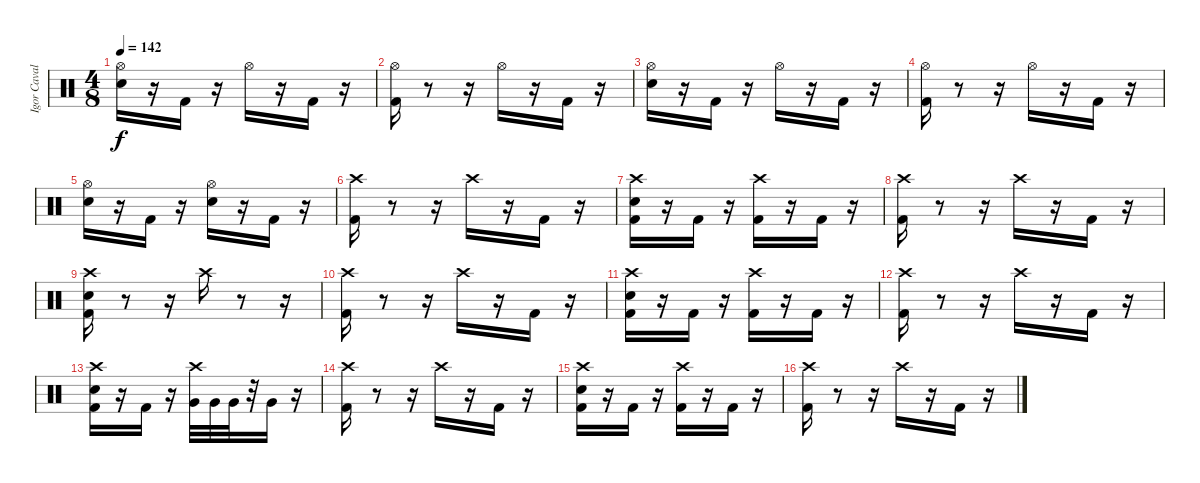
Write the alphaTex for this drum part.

\track ("Igor Cavalera" "Igor Caval") {instrument percussion}
\staff {score}
\articulation defaults
\ts (4 8)
\tempo 142
\clef neutral
\ks c
("Electric Snare (hit)" "Hi-Hat (open)").16{dy f} r.16 "Kick (hit) 2".16 r.16 "Hi-Hat (open)".16 r.16 "Kick (hit) 2".16 r.16 |
("Kick (hit) 2" "Hi-Hat (open)").16 r.8 r.16 "Hi-Hat (open)".16 r.16 "Kick (hit) 2".16 r.16 |
("Electric Snare (hit)" "Hi-Hat (open)").16 r.16 "Kick (hit) 2".16 r.16 "Hi-Hat (open)".16 r.16 "Kick (hit) 2".16 r.16 |
("Kick (hit) 2" "Hi-Hat (open)").16 r.8 r.16 "Hi-Hat (open)".16 r.16 "Kick (hit) 2".16 r.16 |
("Electric Snare (hit)" "Hi-Hat (open)").16 r.16 "Kick (hit) 2".16 r.16 ("Hi-Hat (open)" "Electric Snare (hit)").16 r.16 "Kick (hit) 2".16 r.16 |
("Kick (hit) 2" "Crash high (hit)").16 r.8 r.16 "Crash high (hit)".16 r.16 "Kick (hit) 2".16 r.16 |
("Electric Snare (hit)" "Kick (hit) 2" "Crash high (hit)").16 r.16 "Kick (hit) 2".16 r.16 ("Crash high (hit)" "Kick (hit) 2").16 r.16 "Kick (hit) 2".16 r.16 |
("Kick (hit) 2" "Crash high (hit)").16 r.8 r.16 "Crash high (hit)".16 r.16 "Kick (hit) 2".16 r.16 |
("Kick (hit) 2" "Crash high (hit)" "Electric Snare (hit)").16 r.8 r.16 "Crash high (hit)".16 r.8 r.16 |
("Kick (hit) 2" "Crash high (hit)").16 r.8 r.16 "Crash high (hit)".16 r.16 "Kick (hit) 2".16 r.16 |
("Electric Snare (hit)" "Kick (hit) 2" "Crash high (hit)").16 r.16 "Kick (hit) 2".16 r.16 ("Crash high (hit)" "Kick (hit) 2").16 r.16 "Kick (hit) 2".16 r.16 |
("Kick (hit) 2" "Crash high (hit)").16 r.8 r.16 "Crash high (hit)".16 r.16 "Kick (hit) 2".16 r.16 |
("Kick (hit) 2" "Crash high (hit)" "Electric Snare (hit)").16 r.16 "Kick (hit) 2".16 r.16 ("Crash high (hit)" "Very Low Tom (hit)").32 "Very Low Tom (hit)".32 "Very Low Tom (hit)".32 r.32 "Very Low Tom (hit)".16 r.16 |
("Kick (hit) 2" "Crash high (hit)").16 r.8 r.16 "Crash high (hit)".16 r.16 "Kick (hit) 2".16 r.16 |
("Electric Snare (hit)" "Kick (hit) 2" "Crash high (hit)").16 r.16 "Kick (hit) 2".16 r.16 ("Crash high (hit)" "Kick (hit) 2").16 r.16 "Kick (hit) 2".16 r.16 |
("Kick (hit) 2" "Crash high (hit)").16 r.8 r.16 "Crash high (hit)".16 r.16 "Kick (hit) 2".16 r.16
